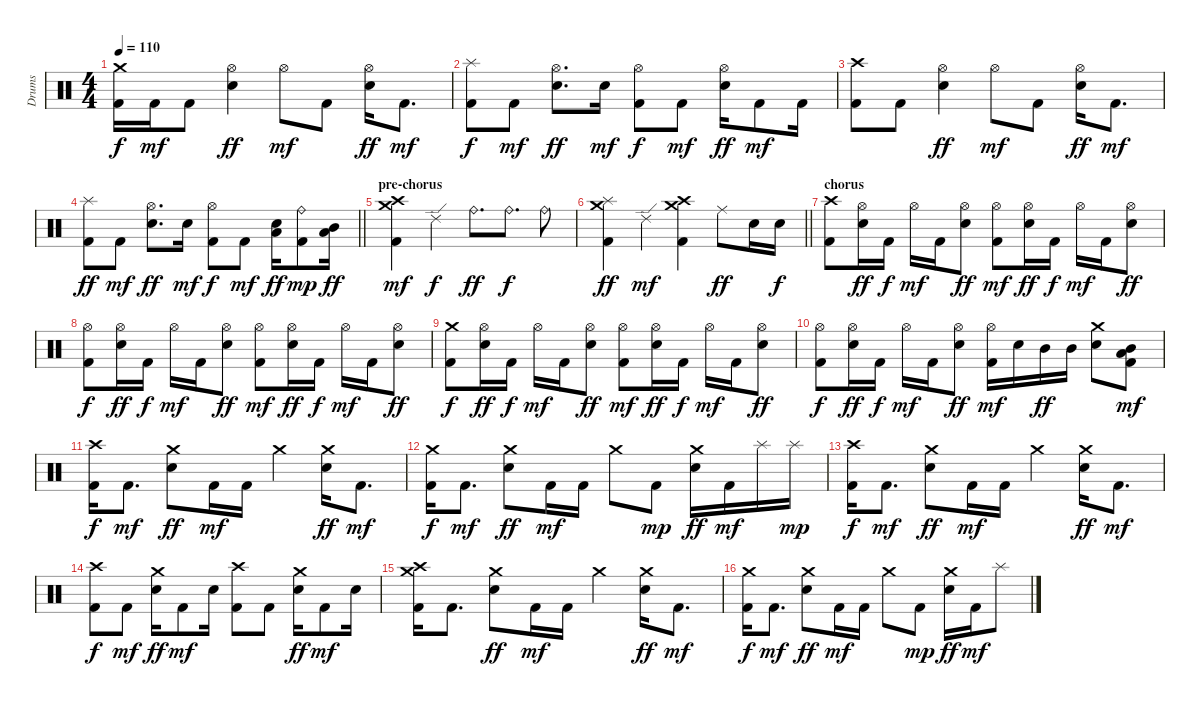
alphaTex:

\track ("Drums" "Drums") {instrument percussion}
\staff {score}
\articulation defaults
\ts (4 4)
\tempo 110
\clef neutral
\ks c
("Crash medium (hit)" "Kick (hit) 2").16{dy f} "Kick (hit) 2".16{dy mf} "Kick (hit) 2".8 ("Hi-Hat (open)" "Snare (hit) 2").4{dy ff} "Hi-Hat (open)".8{dy mf} "Kick (hit) 2".8 ("Hi-Hat (open)" "Snare (hit) 2").16{dy ff} "Kick (hit) 2".8{d dy mf} |
("Splash (hit)" "Kick (hit) 2").8{dy f} "Kick (hit) 2".8{dy mf} ("Hi-Hat (open)" "Snare (hit) 2").8{d dy ff} "Snare (hit) 2".16{dy mf} ("Hi-Hat (open)" "Kick (hit) 2").8{dy f} "Kick (hit) 2".8{dy mf} ("Hi-Hat (open)" "Snare (hit) 2").16{dy ff} "Kick (hit) 2".8{dy mf} "Kick (hit) 2".16 |
("Crash high (hit)" "Kick (hit) 2").8 "Kick (hit) 2".8 ("Hi-Hat (open)" "Snare (hit) 2").4{dy ff} "Hi-Hat (open)".8{dy mf} "Kick (hit) 2".8 ("Hi-Hat (open)" "Snare (hit) 2").16{dy ff} "Kick (hit) 2".8{d dy mf} |
\barLineRight lightlight
("Splash (hit)" "Kick (hit) 2").8{dy ff} "Kick (hit) 2".8{dy mf} ("Hi-Hat (open)" "Snare (hit) 2").8{d dy ff} "Snare (hit) 2".16{dy mf} ("Hi-Hat (open)" "Kick (hit) 2").8{dy f} "Kick (hit) 2".8{dy mf} ("Low Tom (hit)" "Snare (hit) 2").16{dy ff} ("Ride (bell)" "Kick (hit) 2").8{dy mp} ("Low Tom (hit)" "Mid Tom (hit)").16{dy ff} |
\section ("" "pre-chorus")
("Crash medium (hit)" "Crash high (hit)" "Kick (hit) 2").4{dy mf} "Ride (edge) 2".4{dy f} "Ride (bell)".8{d dy ff} "Ride (bell)".8{d dy f} "Ride (bell)".8 |
\barLineRight lightlight
("Crash medium (hit)" "Splash (hit)" "Kick (hit) 2").4{dy ff} "Ride (edge) 2".4{dy mf} ("Crash medium (hit)" "Crash high (hit)" "Kick (hit) 2").4 "Ride (middle)".8{dy ff} "Snare (hit) 2".16 "Snare (hit) 2".16{dy f} |
\section ("" "chorus")
("Crash high (hit)" "Kick (hit) 2").8 ("Hi-Hat (open)" "Snare (hit) 2").16{dy ff} "Kick (hit) 2".16{dy f} "Hi-Hat (open)".16{dy mf} "Kick (hit) 2".16 ("Hi-Hat (open)" "Snare (hit) 2").8{dy ff} ("Hi-Hat (open)" "Kick (hit) 2").8{dy mf} ("Hi-Hat (open)" "Snare (hit) 2").16{dy ff} "Kick (hit) 2".16{dy f} "Hi-Hat (open)".16{dy mf} "Kick (hit) 2".16 ("Hi-Hat (open)" "Snare (hit) 2").8{dy ff} |
("Hi-Hat (open)" "Kick (hit) 2").8{dy f} ("Hi-Hat (open)" "Snare (hit) 2").16{dy ff} "Kick (hit) 2".16{dy f} "Hi-Hat (open)".16{dy mf} "Kick (hit) 2".16 ("Hi-Hat (open)" "Snare (hit) 2").8{dy ff} ("Hi-Hat (open)" "Kick (hit) 2").8{dy mf} ("Hi-Hat (open)" "Snare (hit) 2").16{dy ff} "Kick (hit) 2".16{dy f} "Hi-Hat (open)".16{dy mf} "Kick (hit) 2".16 ("Hi-Hat (open)" "Snare (hit) 2").8{dy ff} |
("Crash medium (hit)" "Kick (hit) 2").8{dy f} ("Hi-Hat (open)" "Snare (hit) 2").16{dy ff} "Kick (hit) 2".16{dy f} "Hi-Hat (open)".16{dy mf} "Kick (hit) 2".16 ("Hi-Hat (open)" "Snare (hit) 2").8{dy ff} ("Hi-Hat (open)" "Kick (hit) 2").8{dy mf} ("Hi-Hat (open)" "Snare (hit) 2").16{dy ff} "Kick (hit) 2".16{dy f} "Hi-Hat (open)".16{dy mf} "Kick (hit) 2".16 ("Hi-Hat (open)" "Snare (hit) 2").8{dy ff} |
("Hi-Hat (open)" "Kick (hit) 2").8{dy f} ("Hi-Hat (open)" "Snare (hit) 2").16{dy ff} "Kick (hit) 2".16{dy f} "Hi-Hat (open)".16{dy mf} "Kick (hit) 2".16 ("Hi-Hat (open)" "Snare (hit) 2").8{dy ff} ("Hi-Hat (open)" "Kick (hit) 2").16{dy mf} "Snare (hit) 2".16 "Mid Tom (hit)".16{dy ff} "Mid Tom (hit)".16 ("Crash medium (hit)" "Snare (hit) 2").8 ("Low Tom (hit)" "Mid Tom (hit)" "Kick (hit) 2").8{dy mf} |
("Crash high (hit)" "Kick (hit) 2").16{dy f} "Kick (hit) 2".8{d dy mf} ("Crash medium (hit)" "Snare (hit) 2").8{dy ff} "Kick (hit) 2".16{dy mf} "Kick (hit) 2".16 "Crash medium (hit)".4 ("Crash medium (hit)" "Snare (hit) 2").16{dy ff} "Kick (hit) 2".8{d dy mf} |
("Crash medium (hit)" "Kick (hit) 2").16{dy f} "Kick (hit) 2".8{d dy mf} ("Crash medium (hit)" "Snare (hit) 2").8{dy ff} "Kick (hit) 2".16{dy mf} "Kick (hit) 2".16 "Crash medium (hit)".8 "Kick (hit) 2".8{dy mp} ("Crash medium (hit)" "Snare (hit) 2").16{dy ff} "Kick (hit) 2".16{dy mf} "Splash (hit)".16 "Splash (hit)".16{dy mp} |
("Crash high (hit)" "Kick (hit) 2").16{dy f} "Kick (hit) 2".8{d dy mf} ("Crash medium (hit)" "Snare (hit) 2").8{dy ff} "Kick (hit) 2".16{dy mf} "Kick (hit) 2".16 "Crash medium (hit)".4 ("Crash medium (hit)" "Snare (hit) 2").16{dy ff} "Kick (hit) 2".8{d dy mf} |
("Crash high (hit)" "Kick (hit) 2").8{dy f} "Kick (hit) 2".8{dy mf} ("Crash medium (hit)" "Snare (hit) 2").16{dy ff} "Kick (hit) 2".8{dy mf} "Snare (hit) 2".16 ("Crash high (hit)" "Kick (hit) 2").8 "Kick (hit) 2".8 ("Crash medium (hit)" "Snare (hit) 2").16{dy ff} "Kick (hit) 2".8{dy mf} "Snare (hit) 2".16 |
("Crash medium (hit)" "Crash high (hit)" "Kick (hit) 2").16 "Kick (hit) 2".8{d} ("Crash medium (hit)" "Snare (hit) 2").8{dy ff} "Kick (hit) 2".16{dy mf} "Kick (hit) 2".16 "Crash medium (hit)".4 ("Crash medium (hit)" "Snare (hit) 2").16{dy ff} "Kick (hit) 2".8{d dy mf} |
("Crash medium (hit)" "Kick (hit) 2").16{dy f} "Kick (hit) 2".8{d dy mf} ("Crash medium (hit)" "Snare (hit) 2").8{dy ff} "Kick (hit) 2".16{dy mf} "Kick (hit) 2".16 "Crash medium (hit)".8 "Kick (hit) 2".8{dy mp} ("Crash medium (hit)" "Snare (hit) 2").16{dy ff} "Kick (hit) 2".16{dy mf} "Splash (hit)".8
